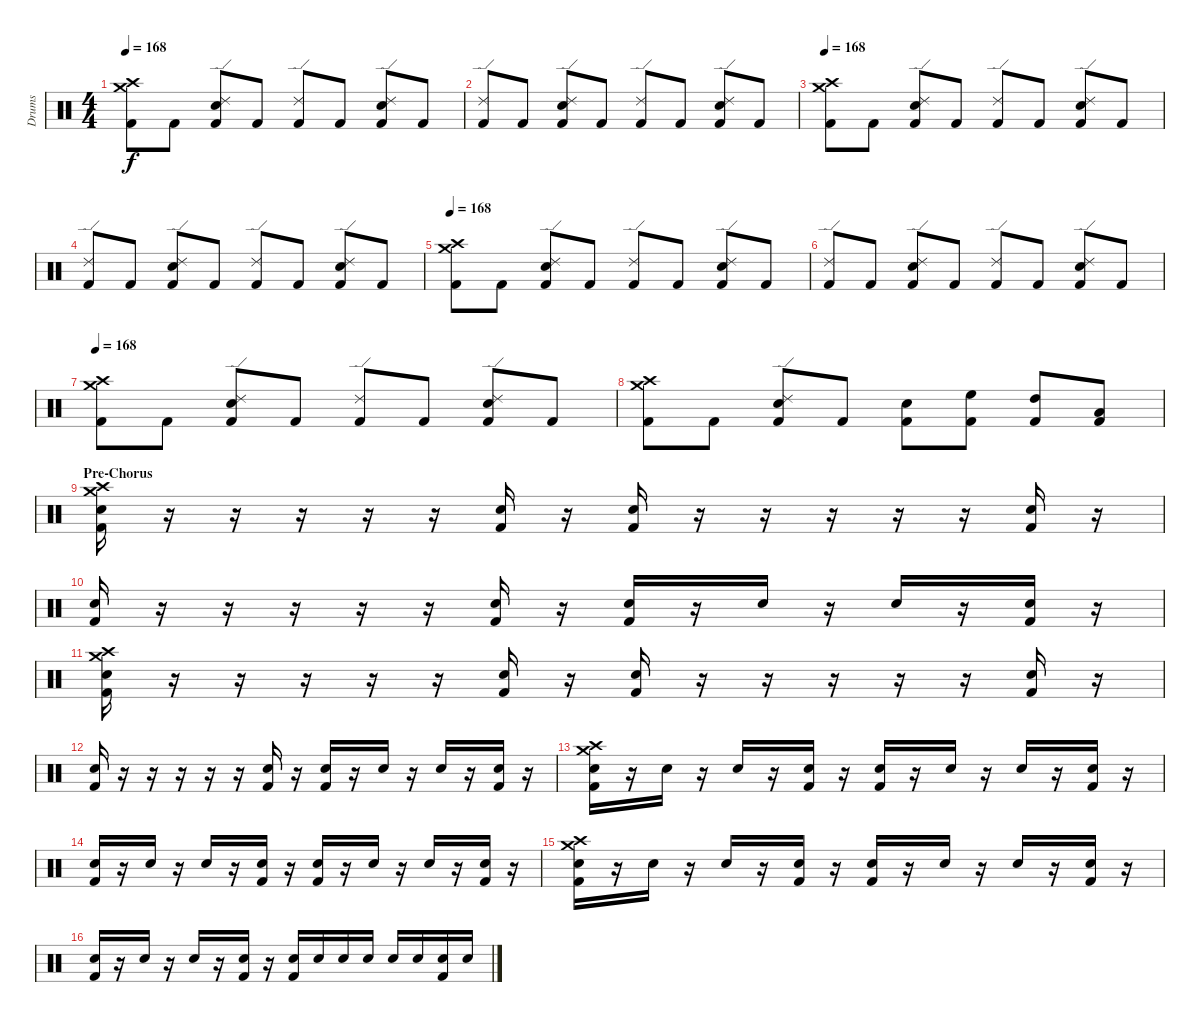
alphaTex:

\track ("Drums" "Drums") {instrument percussion}
\staff {score}
\articulation defaults
\ts (4 4)
\tempo 168
\clef neutral
\ks c
("Crash medium (hit)" "Crash high (hit)" "Kick (hit) 2").8{dy f} "Kick (hit) 2".8 ("Ride (edge) 2" "Snare (hit) 2" "Kick (hit) 2").8 "Kick (hit) 2".8 ("Ride (edge) 2" "Kick (hit) 2").8 "Kick (hit) 2".8 ("Ride (edge) 2" "Snare (hit) 2" "Kick (hit) 2").8 "Kick (hit) 2".8 |
("Ride (edge) 2" "Kick (hit) 2").8 "Kick (hit) 2".8 ("Ride (edge) 2" "Snare (hit) 2" "Kick (hit) 2").8 "Kick (hit) 2".8 ("Ride (edge) 2" "Kick (hit) 2").8 "Kick (hit) 2".8 ("Ride (edge) 2" "Snare (hit) 2" "Kick (hit) 2").8 "Kick (hit) 2".8 |
\tempo 168
("Crash medium (hit)" "Crash high (hit)" "Kick (hit) 2").8 "Kick (hit) 2".8 ("Ride (edge) 2" "Snare (hit) 2" "Kick (hit) 2").8 "Kick (hit) 2".8 ("Ride (edge) 2" "Kick (hit) 2").8 "Kick (hit) 2".8 ("Ride (edge) 2" "Snare (hit) 2" "Kick (hit) 2").8 "Kick (hit) 2".8 |
("Ride (edge) 2" "Kick (hit) 2").8 "Kick (hit) 2".8 ("Ride (edge) 2" "Snare (hit) 2" "Kick (hit) 2").8 "Kick (hit) 2".8 ("Ride (edge) 2" "Kick (hit) 2").8 "Kick (hit) 2".8 ("Ride (edge) 2" "Snare (hit) 2" "Kick (hit) 2").8 "Kick (hit) 2".8 |
\tempo 168
("Crash medium (hit)" "Crash high (hit)" "Kick (hit) 2").8 "Kick (hit) 2".8 ("Ride (edge) 2" "Snare (hit) 2" "Kick (hit) 2").8 "Kick (hit) 2".8 ("Ride (edge) 2" "Kick (hit) 2").8 "Kick (hit) 2".8 ("Ride (edge) 2" "Snare (hit) 2" "Kick (hit) 2").8 "Kick (hit) 2".8 |
("Ride (edge) 2" "Kick (hit) 2").8 "Kick (hit) 2".8 ("Ride (edge) 2" "Snare (hit) 2" "Kick (hit) 2").8 "Kick (hit) 2".8 ("Ride (edge) 2" "Kick (hit) 2").8 "Kick (hit) 2".8 ("Ride (edge) 2" "Snare (hit) 2" "Kick (hit) 2").8 "Kick (hit) 2".8 |
\tempo 168
("Crash medium (hit)" "Crash high (hit)" "Kick (hit) 2").8 "Kick (hit) 2".8 ("Ride (edge) 2" "Snare (hit) 2" "Kick (hit) 2").8 "Kick (hit) 2".8 ("Ride (edge) 2" "Kick (hit) 2").8 "Kick (hit) 2".8 ("Ride (edge) 2" "Snare (hit) 2" "Kick (hit) 2").8 "Kick (hit) 2".8 |
("Crash medium (hit)" "Crash high (hit)" "Kick (hit) 2").8 "Kick (hit) 2".8 ("Ride (edge) 2" "Snare (hit) 2" "Kick (hit) 2").8 "Kick (hit) 2".8 ("Snare (hit) 2" "Kick (hit) 2").8 ("High Floor Tom (hit)" "Kick (hit) 2").8 ("High Tom (hit)" "Kick (hit) 2").8 ("Low Tom (hit)" "Kick (hit) 2").8 |
\section ("" "Pre-Chorus")
("Crash medium (hit)" "Crash high (hit)" "Snare (hit) 2" "Kick (hit) 2").16 r.16 r.16 r.16 r.16 r.16 ("Snare (hit) 2" "Kick (hit) 2").16 r.16 ("Snare (hit) 2" "Kick (hit) 2").16 r.16 r.16 r.16 r.16 r.16 ("Snare (hit) 2" "Kick (hit) 2").16 r.16 |
("Snare (hit) 2" "Kick (hit) 2").16 r.16 r.16 r.16 r.16 r.16 ("Snare (hit) 2" "Kick (hit) 2").16 r.16 ("Snare (hit) 2" "Kick (hit) 2").16 r.16 "Snare (hit) 2".16 r.16 "Snare (hit) 2".16 r.16 ("Snare (hit) 2" "Kick (hit) 2").16 r.16 |
("Crash medium (hit)" "Crash high (hit)" "Snare (hit) 2" "Kick (hit) 2").16 r.16 r.16 r.16 r.16 r.16 ("Snare (hit) 2" "Kick (hit) 2").16 r.16 ("Snare (hit) 2" "Kick (hit) 2").16 r.16 r.16 r.16 r.16 r.16 ("Snare (hit) 2" "Kick (hit) 2").16 r.16 |
("Snare (hit) 2" "Kick (hit) 2").16 r.16 r.16 r.16 r.16 r.16 ("Snare (hit) 2" "Kick (hit) 2").16 r.16 ("Snare (hit) 2" "Kick (hit) 2").16 r.16 "Snare (hit) 2".16 r.16 "Snare (hit) 2".16 r.16 ("Snare (hit) 2" "Kick (hit) 2").16 r.16 |
("Crash medium (hit)" "Crash high (hit)" "Snare (hit) 2" "Kick (hit) 2").16 r.16 "Snare (hit) 2".16 r.16 "Snare (hit) 2".16 r.16 ("Snare (hit) 2" "Kick (hit) 2").16 r.16 ("Snare (hit) 2" "Kick (hit) 2").16 r.16 "Snare (hit) 2".16 r.16 "Snare (hit) 2".16 r.16 ("Snare (hit) 2" "Kick (hit) 2").16 r.16 |
("Snare (hit) 2" "Kick (hit) 2").16 r.16 "Snare (hit) 2".16 r.16 "Snare (hit) 2".16 r.16 ("Snare (hit) 2" "Kick (hit) 2").16 r.16 ("Snare (hit) 2" "Kick (hit) 2").16 r.16 "Snare (hit) 2".16 r.16 "Snare (hit) 2".16 r.16 ("Snare (hit) 2" "Kick (hit) 2").16 r.16 |
("Crash medium (hit)" "Crash high (hit)" "Snare (hit) 2" "Kick (hit) 2").16 r.16 "Snare (hit) 2".16 r.16 "Snare (hit) 2".16 r.16 ("Snare (hit) 2" "Kick (hit) 2").16 r.16 ("Snare (hit) 2" "Kick (hit) 2").16 r.16 "Snare (hit) 2".16 r.16 "Snare (hit) 2".16 r.16 ("Snare (hit) 2" "Kick (hit) 2").16 r.16 |
("Snare (hit) 2" "Kick (hit) 2").16 r.16 "Snare (hit) 2".16 r.16 "Snare (hit) 2".16 r.16 ("Snare (hit) 2" "Kick (hit) 2").16 r.16 ("Snare (hit) 2" "Kick (hit) 2").16 "Snare (hit) 2".16 "Snare (hit) 2".16 "Snare (hit) 2".16 "Snare (hit) 2".16 "Snare (hit) 2".16 ("Snare (hit) 2" "Kick (hit) 2").16 "Snare (hit) 2".16
